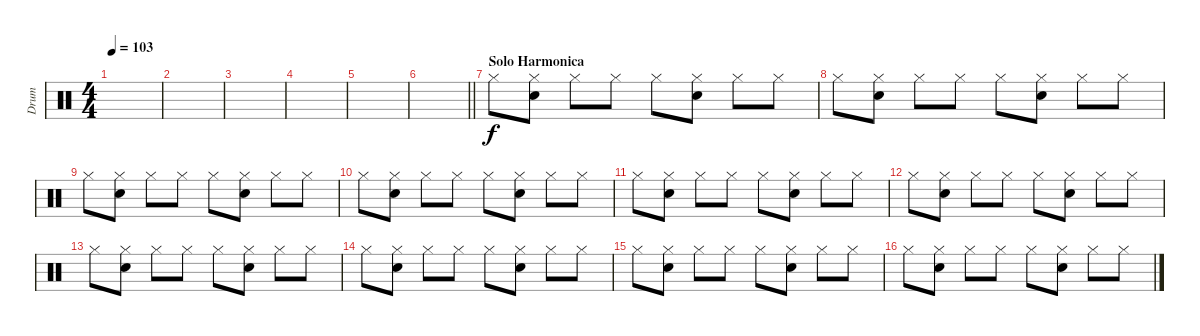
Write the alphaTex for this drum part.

\track ("Drum" "Drum") {instrument percussion}
\staff {score}
\articulation defaults
\ts (4 4)
\tempo 103
\clef neutral
\ks c
|
|
|
|
|
\barLineRight lightlight
|
\section ("" "Solo Harmonica")
"Hi-Hat (closed)".8 ("Hi-Hat (closed)" "Electric Snare (hit)").8 "Hi-Hat (closed)".8 "Hi-Hat (closed)".8 "Hi-Hat (closed)".8 ("Hi-Hat (closed)" "Electric Snare (hit)").8 "Hi-Hat (closed)".8 "Hi-Hat (closed)".8 |
"Hi-Hat (closed)".8 ("Hi-Hat (closed)" "Electric Snare (hit)").8 "Hi-Hat (closed)".8 "Hi-Hat (closed)".8 "Hi-Hat (closed)".8 ("Hi-Hat (closed)" "Electric Snare (hit)").8 "Hi-Hat (closed)".8 "Hi-Hat (closed)".8 |
"Hi-Hat (closed)".8 ("Hi-Hat (closed)" "Electric Snare (hit)").8 "Hi-Hat (closed)".8 "Hi-Hat (closed)".8 "Hi-Hat (closed)".8 ("Hi-Hat (closed)" "Electric Snare (hit)").8 "Hi-Hat (closed)".8 "Hi-Hat (closed)".8 |
"Hi-Hat (closed)".8 ("Hi-Hat (closed)" "Electric Snare (hit)").8 "Hi-Hat (closed)".8 "Hi-Hat (closed)".8 "Hi-Hat (closed)".8 ("Hi-Hat (closed)" "Electric Snare (hit)").8 "Hi-Hat (closed)".8 "Hi-Hat (closed)".8 |
"Hi-Hat (closed)".8 ("Hi-Hat (closed)" "Electric Snare (hit)").8 "Hi-Hat (closed)".8 "Hi-Hat (closed)".8 "Hi-Hat (closed)".8 ("Hi-Hat (closed)" "Electric Snare (hit)").8 "Hi-Hat (closed)".8 "Hi-Hat (closed)".8 |
"Hi-Hat (closed)".8 ("Hi-Hat (closed)" "Electric Snare (hit)").8 "Hi-Hat (closed)".8 "Hi-Hat (closed)".8 "Hi-Hat (closed)".8 ("Hi-Hat (closed)" "Electric Snare (hit)").8 "Hi-Hat (closed)".8 "Hi-Hat (closed)".8 |
"Hi-Hat (closed)".8 ("Hi-Hat (closed)" "Electric Snare (hit)").8 "Hi-Hat (closed)".8 "Hi-Hat (closed)".8 "Hi-Hat (closed)".8 ("Hi-Hat (closed)" "Electric Snare (hit)").8 "Hi-Hat (closed)".8 "Hi-Hat (closed)".8 |
"Hi-Hat (closed)".8 ("Hi-Hat (closed)" "Electric Snare (hit)").8 "Hi-Hat (closed)".8 "Hi-Hat (closed)".8 "Hi-Hat (closed)".8 ("Hi-Hat (closed)" "Electric Snare (hit)").8 "Hi-Hat (closed)".8 "Hi-Hat (closed)".8 |
"Hi-Hat (closed)".8 ("Hi-Hat (closed)" "Electric Snare (hit)").8 "Hi-Hat (closed)".8 "Hi-Hat (closed)".8 "Hi-Hat (closed)".8 ("Hi-Hat (closed)" "Electric Snare (hit)").8 "Hi-Hat (closed)".8 "Hi-Hat (closed)".8 |
"Hi-Hat (closed)".8 ("Hi-Hat (closed)" "Electric Snare (hit)").8 "Hi-Hat (closed)".8 "Hi-Hat (closed)".8 "Hi-Hat (closed)".8 ("Hi-Hat (closed)" "Electric Snare (hit)").8 "Hi-Hat (closed)".8 "Hi-Hat (closed)".8
